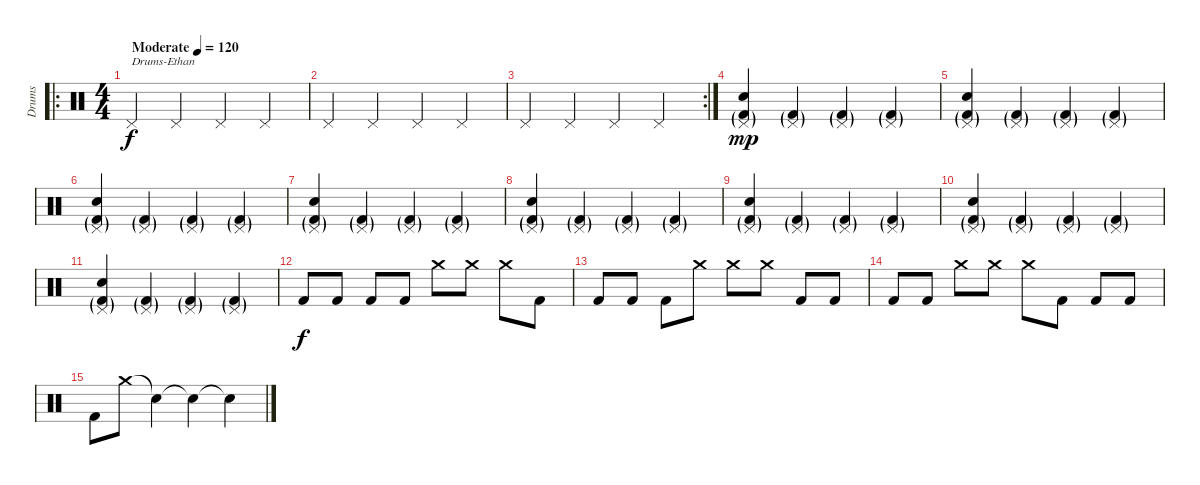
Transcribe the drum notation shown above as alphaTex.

\track ("Drums" "Drums") {instrument percussion}
\staff {score}
\articulation defaults
\ro
\ts (4 4)
\tempo (120 "Moderate")
\clef neutral
\ks c "Pedal Hi-Hat (hit)".4{txt "Drums-Ethan" dy f} "Pedal Hi-Hat (hit)".4 "Pedal Hi-Hat (hit)".4 "Pedal Hi-Hat (hit)".4
|
"Pedal Hi-Hat (hit)".4 "Pedal Hi-Hat (hit)".4 "Pedal Hi-Hat (hit)".4 "Pedal Hi-Hat (hit)".4 |
\rc 2 "Pedal Hi-Hat (hit)".4 "Pedal Hi-Hat (hit)".4 "Pedal Hi-Hat (hit)".4 "Pedal Hi-Hat (hit)".4
|
("Snare (hit) 2" "Pedal Hi-Hat (hit)"{g} "Kick (hit) 2"{g}).4{dy mp} ("Pedal Hi-Hat (hit)"{g} "Kick (hit) 2"{g}).4 ("Pedal Hi-Hat (hit)"{g} "Kick (hit) 2"{g}).4 ("Pedal Hi-Hat (hit)"{g} "Kick (hit) 2"{g}).4 |
("Snare (hit) 2" "Pedal Hi-Hat (hit)"{g} "Kick (hit) 2"{g}).4 ("Pedal Hi-Hat (hit)"{g} "Kick (hit) 2"{g}).4 ("Pedal Hi-Hat (hit)"{g} "Kick (hit) 2"{g}).4 ("Pedal Hi-Hat (hit)"{g} "Kick (hit) 2"{g}).4 |
("Snare (hit) 2" "Pedal Hi-Hat (hit)"{g} "Kick (hit) 2"{g}).4 ("Pedal Hi-Hat (hit)"{g} "Kick (hit) 2"{g}).4 ("Pedal Hi-Hat (hit)"{g} "Kick (hit) 2"{g}).4 ("Pedal Hi-Hat (hit)"{g} "Kick (hit) 2"{g}).4 |
("Snare (hit) 2" "Pedal Hi-Hat (hit)"{g} "Kick (hit) 2"{g}).4 ("Pedal Hi-Hat (hit)"{g} "Kick (hit) 2"{g}).4 ("Pedal Hi-Hat (hit)"{g} "Kick (hit) 2"{g}).4 ("Pedal Hi-Hat (hit)"{g} "Kick (hit) 2"{g}).4 |
("Snare (hit) 2" "Pedal Hi-Hat (hit)"{g} "Kick (hit) 2"{g}).4 ("Pedal Hi-Hat (hit)"{g} "Kick (hit) 2"{g}).4 ("Pedal Hi-Hat (hit)"{g} "Kick (hit) 2"{g}).4 ("Pedal Hi-Hat (hit)"{g} "Kick (hit) 2"{g}).4 |
("Snare (hit) 2" "Pedal Hi-Hat (hit)"{g} "Kick (hit) 2"{g}).4 ("Pedal Hi-Hat (hit)"{g} "Kick (hit) 2"{g}).4 ("Pedal Hi-Hat (hit)"{g} "Kick (hit) 2"{g}).4 ("Pedal Hi-Hat (hit)"{g} "Kick (hit) 2"{g}).4 |
("Snare (hit) 2" "Pedal Hi-Hat (hit)"{g} "Kick (hit) 2"{g}).4 ("Pedal Hi-Hat (hit)"{g} "Kick (hit) 2"{g}).4 ("Pedal Hi-Hat (hit)"{g} "Kick (hit) 2"{g}).4 ("Pedal Hi-Hat (hit)"{g} "Kick (hit) 2"{g}).4 |
("Snare (hit) 2" "Pedal Hi-Hat (hit)"{g} "Kick (hit) 2"{g}).4 ("Pedal Hi-Hat (hit)"{g} "Kick (hit) 2"{g}).4 ("Pedal Hi-Hat (hit)"{g} "Kick (hit) 2"{g}).4 ("Pedal Hi-Hat (hit)"{g} "Kick (hit) 2"{g}).4 |
"Kick (hit) 2".8{dy f} "Kick (hit) 2".8 "Kick (hit) 2".8 "Kick (hit) 2".8 "Crash medium (hit)".8 "Crash medium (hit)".8 "Crash medium (hit)".8 "Kick (hit) 2".8 |
"Kick (hit) 2".8 "Kick (hit) 2".8 "Kick (hit) 2".8 "Crash medium (hit)".8 "Crash medium (hit)".8 "Crash medium (hit)".8 "Kick (hit) 2".8 "Kick (hit) 2".8 |
"Kick (hit) 2".8 "Kick (hit) 2".8 "Crash medium (hit)".8 "Crash medium (hit)".8 "Crash medium (hit)".8 "Kick (hit) 2".8 "Kick (hit) 2".8 "Kick (hit) 2".8 |
"Kick (hit) 2".8 "Crash medium (hit)".8 "Snare (hit)"{t}.4 "Snare (hit)"{t}.4 "Snare (hit)"{t}.4
